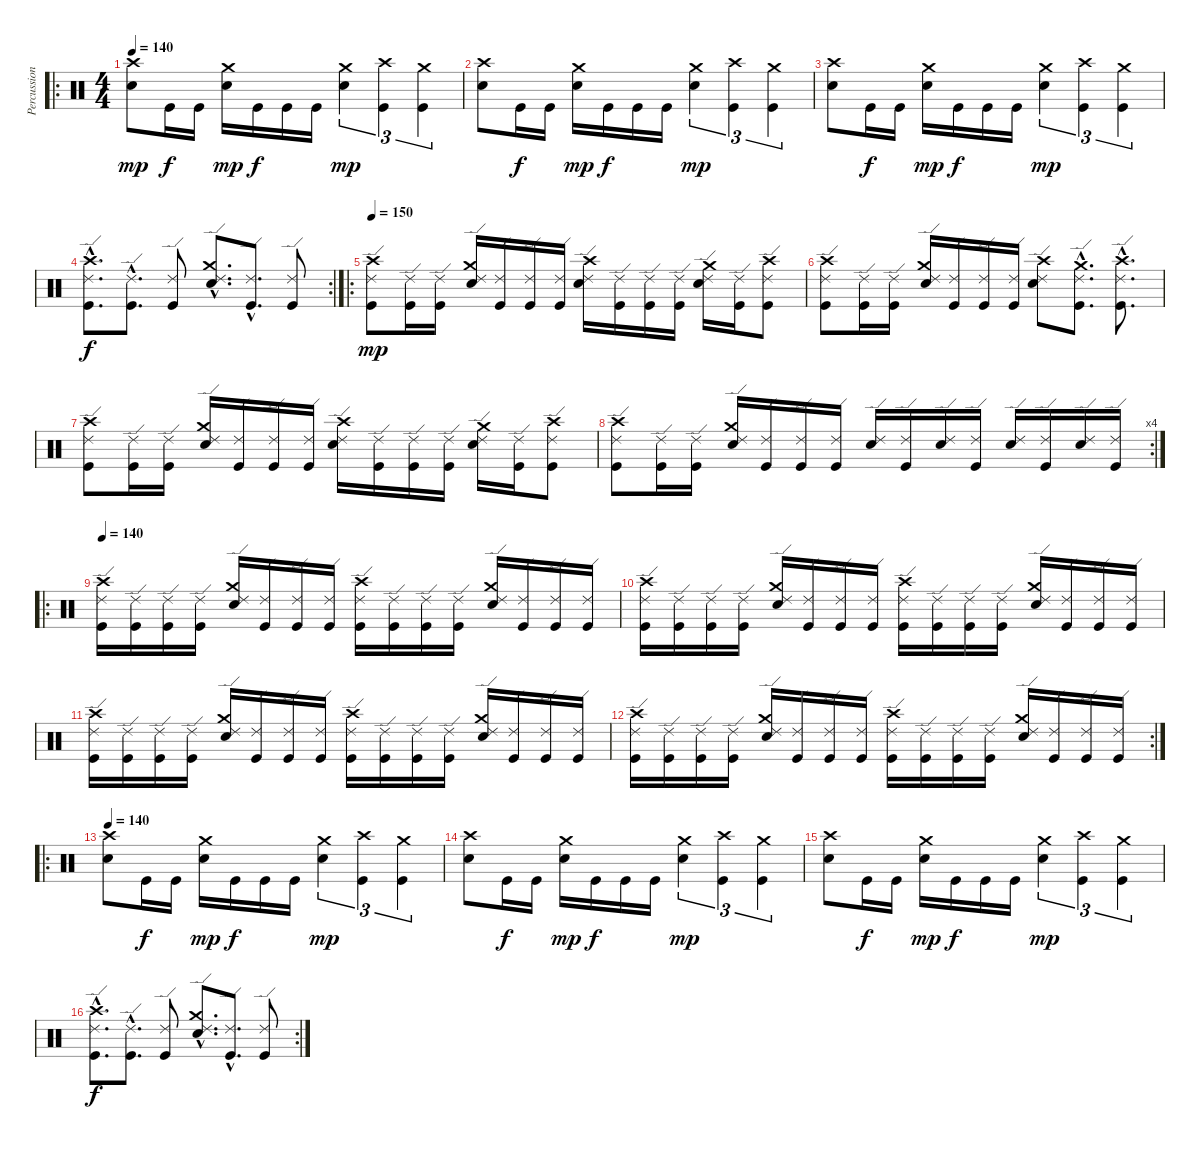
\track ("Percussion" "Percussion") {instrument percussion}
\staff {score}
\articulation defaults
\ro
\ts (4 4)
\tempo 140
\clef neutral
\ks c
("Crash high (hit)" "Snare (hit) 2").8{dy mp} "Kick (hit)".16{dy f} "Kick (hit)".16 ("Crash medium (hit)" "Snare (hit) 2").16{dy mp} "Kick (hit)".16{dy f} "Kick (hit)".16 "Kick (hit)".16 ("Crash medium (hit)" "Snare (hit) 2").4{tu (3 2) dy mp} ("Crash high (hit)" "Kick (hit)").4{tu (3 2)} ("Crash medium (hit)" "Kick (hit)").4{tu (3 2)} |
("Crash high (hit)" "Snare (hit) 2").8 "Kick (hit)".16{dy f} "Kick (hit)".16 ("Crash medium (hit)" "Snare (hit) 2").16{dy mp} "Kick (hit)".16{dy f} "Kick (hit)".16 "Kick (hit)".16 ("Crash medium (hit)" "Snare (hit) 2").4{tu (3 2) dy mp} ("Crash high (hit)" "Kick (hit)").4{tu (3 2)} ("Crash medium (hit)" "Kick (hit)").4{tu (3 2)} |
("Crash high (hit)" "Snare (hit) 2").8 "Kick (hit)".16{dy f} "Kick (hit)".16 ("Crash medium (hit)" "Snare (hit) 2").16{dy mp} "Kick (hit)".16{dy f} "Kick (hit)".16 "Kick (hit)".16 ("Crash medium (hit)" "Snare (hit) 2").4{tu (3 2) dy mp} ("Crash high (hit)" "Kick (hit)").4{tu (3 2)} ("Crash medium (hit)" "Kick (hit)").4{tu (3 2)} |
\rc 2
("Crash high (hit)"{hac} "Ride (edge) 2"{hac} "Kick (hit)"{hac}).8{d dy f} ("Ride (edge) 2"{hac} "Kick (hit)"{hac}).8{d} ("Ride (edge) 2" "Kick (hit)").8 ("Crash medium (hit)"{hac} "Ride (edge) 2"{hac} "Snare (hit) 2"{hac}).8{d} ("Ride (edge) 2"{hac} "Kick (hit)"{hac}).8{d} ("Ride (edge) 2" "Kick (hit)").8 |
\ro
\tempo 150
("Crash high (hit)" "Ride (edge) 2" "Kick (hit)").8{dy mp} ("Ride (edge) 2" "Kick (hit)").16 ("Ride (edge) 2" "Kick (hit)").16 ("Crash medium (hit)" "Ride (edge) 2" "Snare (hit) 2").16 ("Ride (edge) 2" "Kick (hit)").16 ("Ride (edge) 2" "Kick (hit)").16 ("Ride (edge) 2" "Kick (hit)").16 ("Ride (edge) 2" "Crash high (hit)" "Snare (hit) 2").16 ("Ride (edge) 2" "Kick (hit)").16 ("Ride (edge) 2" "Kick (hit)").16 ("Ride (edge) 2" "Kick (hit)").16 ("Ride (edge) 2" "Crash medium (hit)" "Snare (hit) 2").16 ("Ride (edge) 2" "Kick (hit)").16 ("Ride (edge) 2" "Crash high (hit)" "Kick (hit)").8 |
("Crash high (hit)" "Ride (edge) 2" "Kick (hit)").8 ("Ride (edge) 2" "Kick (hit)").16 ("Ride (edge) 2" "Kick (hit)").16 ("Crash medium (hit)" "Ride (edge) 2" "Snare (hit) 2").16 ("Ride (edge) 2" "Kick (hit)").16 ("Ride (edge) 2" "Kick (hit)").16 ("Ride (edge) 2" "Kick (hit)").16 ("Crash high (hit)" "Ride (edge) 2" "Snare (hit) 2").8 ("Crash medium (hit)"{hac} "Ride (edge) 2"{hac} "Kick (hit)"{hac}).8{d} ("Crash high (hit)"{hac} "Ride (edge) 2"{hac} "Kick (hit)"{hac}).8{d} |
("Crash high (hit)" "Ride (edge) 2" "Kick (hit)").8 ("Ride (edge) 2" "Kick (hit)").16 ("Ride (edge) 2" "Kick (hit)").16 ("Crash medium (hit)" "Ride (edge) 2" "Snare (hit) 2").16 ("Ride (edge) 2" "Kick (hit)").16 ("Ride (edge) 2" "Kick (hit)").16 ("Ride (edge) 2" "Kick (hit)").16 ("Ride (edge) 2" "Crash high (hit)" "Snare (hit) 2").16 ("Ride (edge) 2" "Kick (hit)").16 ("Ride (edge) 2" "Kick (hit)").16 ("Ride (edge) 2" "Kick (hit)").16 ("Ride (edge) 2" "Crash medium (hit)" "Snare (hit) 2").16 ("Ride (edge) 2" "Kick (hit)").16 ("Ride (edge) 2" "Crash high (hit)" "Kick (hit)").8 |
\rc 4
("Crash high (hit)" "Ride (edge) 2" "Kick (hit)").8 ("Ride (edge) 2" "Kick (hit)").16 ("Ride (edge) 2" "Kick (hit)").16 ("Crash medium (hit)" "Ride (edge) 2" "Snare (hit) 2").16 ("Ride (edge) 2" "Kick (hit)").16 ("Ride (edge) 2" "Kick (hit)").16 ("Ride (edge) 2" "Kick (hit)").16 ("Snare (hit) 2" "Ride (edge) 2").16 ("Ride (edge) 2" "Kick (hit)").16 ("Ride (edge) 2" "Snare (hit) 2").16 ("Ride (edge) 2" "Kick (hit)").16 ("Snare (hit) 2" "Ride (edge) 2").16 ("Ride (edge) 2" "Kick (hit)").16 ("Ride (edge) 2" "Snare (hit) 2").16 ("Ride (edge) 2" "Kick (hit)").16 |
\ro
\tempo 140
("Crash high (hit)" "Ride (edge) 2" "Kick (hit)").16 ("Ride (edge) 2" "Kick (hit)").16 ("Ride (edge) 2" "Kick (hit)").16 ("Ride (edge) 2" "Kick (hit)").16 ("Crash medium (hit)" "Ride (edge) 2" "Snare (hit) 2").16 ("Ride (edge) 2" "Kick (hit)").16 ("Ride (edge) 2" "Kick (hit)").16 ("Ride (edge) 2" "Kick (hit)").16 ("Crash high (hit)" "Ride (edge) 2" "Kick (hit)").16 ("Ride (edge) 2" "Kick (hit)").16 ("Ride (edge) 2" "Kick (hit)").16 ("Ride (edge) 2" "Kick (hit)").16 ("Crash medium (hit)" "Ride (edge) 2" "Snare (hit) 2").16 ("Ride (edge) 2" "Kick (hit)").16 ("Ride (edge) 2" "Kick (hit)").16 ("Ride (edge) 2" "Kick (hit)").16 |
("Crash high (hit)" "Ride (edge) 2" "Kick (hit)").16 ("Ride (edge) 2" "Kick (hit)").16 ("Ride (edge) 2" "Kick (hit)").16 ("Ride (edge) 2" "Kick (hit)").16 ("Crash medium (hit)" "Ride (edge) 2" "Snare (hit) 2").16 ("Ride (edge) 2" "Kick (hit)").16 ("Ride (edge) 2" "Kick (hit)").16 ("Ride (edge) 2" "Kick (hit)").16 ("Crash high (hit)" "Ride (edge) 2" "Kick (hit)").16 ("Ride (edge) 2" "Kick (hit)").16 ("Ride (edge) 2" "Kick (hit)").16 ("Ride (edge) 2" "Kick (hit)").16 ("Crash medium (hit)" "Ride (edge) 2" "Snare (hit) 2").16 ("Ride (edge) 2" "Kick (hit)").16 ("Ride (edge) 2" "Kick (hit)").16 ("Ride (edge) 2" "Kick (hit)").16 |
("Crash high (hit)" "Ride (edge) 2" "Kick (hit)").16 ("Ride (edge) 2" "Kick (hit)").16 ("Ride (edge) 2" "Kick (hit)").16 ("Ride (edge) 2" "Kick (hit)").16 ("Crash medium (hit)" "Ride (edge) 2" "Snare (hit) 2").16 ("Ride (edge) 2" "Kick (hit)").16 ("Ride (edge) 2" "Kick (hit)").16 ("Ride (edge) 2" "Kick (hit)").16 ("Crash high (hit)" "Ride (edge) 2" "Kick (hit)").16 ("Ride (edge) 2" "Kick (hit)").16 ("Ride (edge) 2" "Kick (hit)").16 ("Ride (edge) 2" "Kick (hit)").16 ("Crash medium (hit)" "Ride (edge) 2" "Snare (hit) 2").16 ("Ride (edge) 2" "Kick (hit)").16 ("Ride (edge) 2" "Kick (hit)").16 ("Ride (edge) 2" "Kick (hit)").16 |
\rc 2
("Crash high (hit)" "Ride (edge) 2" "Kick (hit)").16 ("Ride (edge) 2" "Kick (hit)").16 ("Ride (edge) 2" "Kick (hit)").16 ("Ride (edge) 2" "Kick (hit)").16 ("Crash medium (hit)" "Ride (edge) 2" "Snare (hit) 2").16 ("Ride (edge) 2" "Kick (hit)").16 ("Ride (edge) 2" "Kick (hit)").16 ("Ride (edge) 2" "Kick (hit)").16 ("Crash high (hit)" "Ride (edge) 2" "Kick (hit)").16 ("Ride (edge) 2" "Kick (hit)").16 ("Ride (edge) 2" "Kick (hit)").16 ("Ride (edge) 2" "Kick (hit)").16 ("Crash medium (hit)" "Ride (edge) 2" "Snare (hit) 2").16 ("Ride (edge) 2" "Kick (hit)").16 ("Ride (edge) 2" "Kick (hit)").16 ("Ride (edge) 2" "Kick (hit)").16 |
\ro
\tempo 140
("Crash high (hit)" "Snare (hit) 2").8 "Kick (hit)".16{dy f} "Kick (hit)".16 ("Crash medium (hit)" "Snare (hit) 2").16{dy mp} "Kick (hit)".16{dy f} "Kick (hit)".16 "Kick (hit)".16 ("Crash medium (hit)" "Snare (hit) 2").4{tu (3 2) dy mp} ("Crash high (hit)" "Kick (hit)").4{tu (3 2)} ("Crash medium (hit)" "Kick (hit)").4{tu (3 2)} |
("Crash high (hit)" "Snare (hit) 2").8 "Kick (hit)".16{dy f} "Kick (hit)".16 ("Crash medium (hit)" "Snare (hit) 2").16{dy mp} "Kick (hit)".16{dy f} "Kick (hit)".16 "Kick (hit)".16 ("Crash medium (hit)" "Snare (hit) 2").4{tu (3 2) dy mp} ("Crash high (hit)" "Kick (hit)").4{tu (3 2)} ("Crash medium (hit)" "Kick (hit)").4{tu (3 2)} |
("Crash high (hit)" "Snare (hit) 2").8 "Kick (hit)".16{dy f} "Kick (hit)".16 ("Crash medium (hit)" "Snare (hit) 2").16{dy mp} "Kick (hit)".16{dy f} "Kick (hit)".16 "Kick (hit)".16 ("Crash medium (hit)" "Snare (hit) 2").4{tu (3 2) dy mp} ("Crash high (hit)" "Kick (hit)").4{tu (3 2)} ("Crash medium (hit)" "Kick (hit)").4{tu (3 2)} |
\rc 2
("Crash high (hit)"{hac} "Ride (edge) 2"{hac} "Kick (hit)"{hac}).8{d dy f} ("Ride (edge) 2"{hac} "Kick (hit)"{hac}).8{d} ("Ride (edge) 2" "Kick (hit)").8 ("Crash medium (hit)"{hac} "Ride (edge) 2"{hac} "Snare (hit) 2"{hac}).8{d} ("Ride (edge) 2"{hac} "Kick (hit)"{hac}).8{d} ("Ride (edge) 2" "Kick (hit)").8
